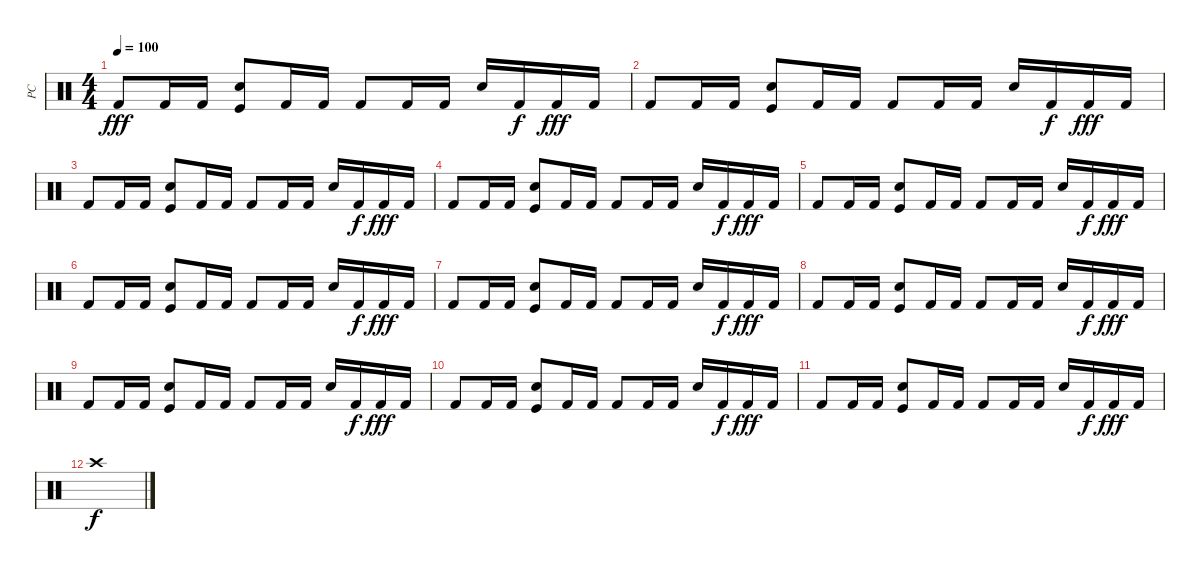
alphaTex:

\track ("PC" "PC") {instrument percussion}
\staff {score}
\articulation defaults
\ts (4 4)
\tempo 100
\clef neutral
\ks c "Kick (hit) 2".8{dy fff} "Kick (hit) 2".16 "Kick (hit) 2".16
("Kick (hit)" "Electric Snare (hit)").8 "Kick (hit) 2".16 "Kick (hit) 2".16 "Kick (hit) 2".8 "Kick (hit) 2".16 "Kick (hit) 2".16 "Electric Snare (hit)".16 "Kick (hit) 2".16{dy f} "Kick (hit) 2".16{dy fff} "Kick (hit) 2".16 |
"Kick (hit) 2".8 "Kick (hit) 2".16 "Kick (hit) 2".16 ("Kick (hit)" "Electric Snare (hit)").8 "Kick (hit) 2".16 "Kick (hit) 2".16 "Kick (hit) 2".8 "Kick (hit) 2".16 "Kick (hit) 2".16 "Electric Snare (hit)".16 "Kick (hit) 2".16{dy f} "Kick (hit) 2".16{dy fff} "Kick (hit) 2".16 |
"Kick (hit) 2".8 "Kick (hit) 2".16 "Kick (hit) 2".16 ("Kick (hit)" "Electric Snare (hit)").8 "Kick (hit) 2".16 "Kick (hit) 2".16 "Kick (hit) 2".8 "Kick (hit) 2".16 "Kick (hit) 2".16 "Electric Snare (hit)".16 "Kick (hit) 2".16{dy f} "Kick (hit) 2".16{dy fff} "Kick (hit) 2".16 |
"Kick (hit) 2".8 "Kick (hit) 2".16 "Kick (hit) 2".16 ("Kick (hit)" "Electric Snare (hit)").8 "Kick (hit) 2".16 "Kick (hit) 2".16 "Kick (hit) 2".8 "Kick (hit) 2".16 "Kick (hit) 2".16 "Electric Snare (hit)".16 "Kick (hit) 2".16{dy f} "Kick (hit) 2".16{dy fff} "Kick (hit) 2".16 |
"Kick (hit) 2".8 "Kick (hit) 2".16 "Kick (hit) 2".16 ("Kick (hit)" "Electric Snare (hit)").8 "Kick (hit) 2".16 "Kick (hit) 2".16 "Kick (hit) 2".8 "Kick (hit) 2".16 "Kick (hit) 2".16 "Electric Snare (hit)".16 "Kick (hit) 2".16{dy f} "Kick (hit) 2".16{dy fff} "Kick (hit) 2".16 |
"Kick (hit) 2".8 "Kick (hit) 2".16 "Kick (hit) 2".16 ("Kick (hit)" "Electric Snare (hit)").8 "Kick (hit) 2".16 "Kick (hit) 2".16 "Kick (hit) 2".8 "Kick (hit) 2".16 "Kick (hit) 2".16 "Electric Snare (hit)".16 "Kick (hit) 2".16{dy f} "Kick (hit) 2".16{dy fff} "Kick (hit) 2".16 |
"Kick (hit) 2".8 "Kick (hit) 2".16 "Kick (hit) 2".16 ("Kick (hit)" "Electric Snare (hit)").8 "Kick (hit) 2".16 "Kick (hit) 2".16 "Kick (hit) 2".8 "Kick (hit) 2".16 "Kick (hit) 2".16 "Electric Snare (hit)".16 "Kick (hit) 2".16{dy f} "Kick (hit) 2".16{dy fff} "Kick (hit) 2".16 |
"Kick (hit) 2".8 "Kick (hit) 2".16 "Kick (hit) 2".16 ("Kick (hit)" "Electric Snare (hit)").8 "Kick (hit) 2".16 "Kick (hit) 2".16 "Kick (hit) 2".8 "Kick (hit) 2".16 "Kick (hit) 2".16 "Electric Snare (hit)".16 "Kick (hit) 2".16{dy f} "Kick (hit) 2".16{dy fff} "Kick (hit) 2".16 |
"Kick (hit) 2".8 "Kick (hit) 2".16 "Kick (hit) 2".16 ("Kick (hit)" "Electric Snare (hit)").8 "Kick (hit) 2".16 "Kick (hit) 2".16 "Kick (hit) 2".8 "Kick (hit) 2".16 "Kick (hit) 2".16 "Electric Snare (hit)".16 "Kick (hit) 2".16{dy f} "Kick (hit) 2".16{dy fff} "Kick (hit) 2".16 |
"Kick (hit) 2".8 "Kick (hit) 2".16 "Kick (hit) 2".16 ("Kick (hit)" "Electric Snare (hit)").8 "Kick (hit) 2".16 "Kick (hit) 2".16 "Kick (hit) 2".8 "Kick (hit) 2".16 "Kick (hit) 2".16 "Electric Snare (hit)".16 "Kick (hit) 2".16{dy f} "Kick (hit) 2".16{dy fff} "Kick (hit) 2".16 |
"Kick (hit) 2".8 "Kick (hit) 2".16 "Kick (hit) 2".16 ("Kick (hit)" "Electric Snare (hit)").8 "Kick (hit) 2".16 "Kick (hit) 2".16 "Kick (hit) 2".8 "Kick (hit) 2".16 "Kick (hit) 2".16 "Electric Snare (hit)".16 "Kick (hit) 2".16{dy f} "Kick (hit) 2".16{dy fff} "Kick (hit) 2".16 |
"Crash high (hit)".1{dy f}
